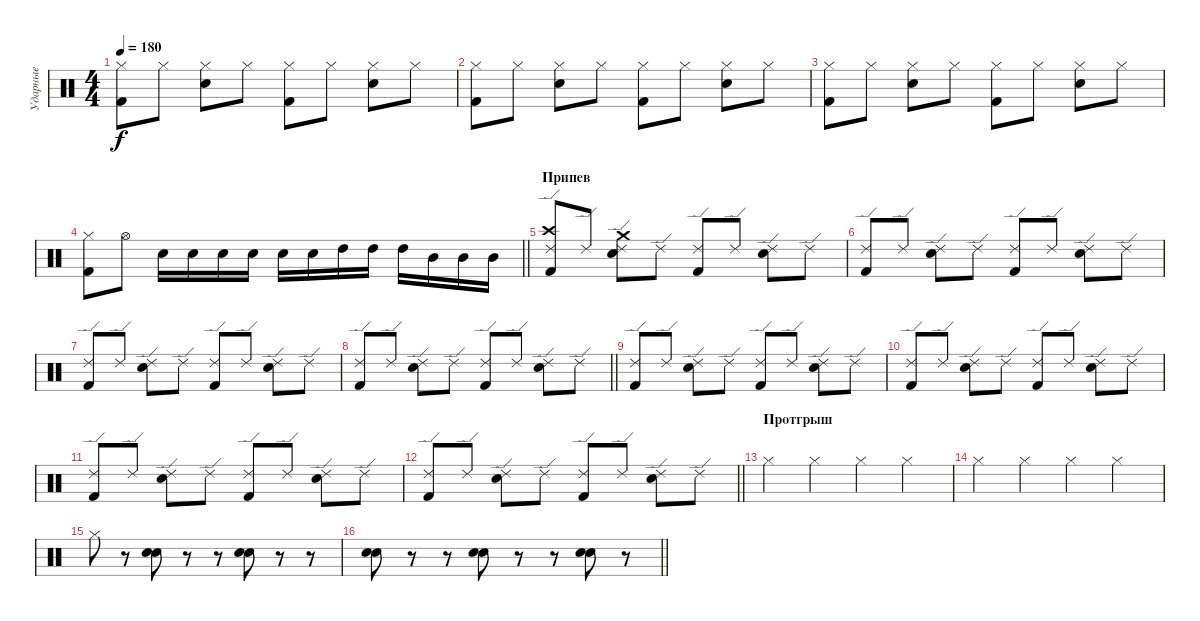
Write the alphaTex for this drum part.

\track ("Ударные" "Ударные") {instrument percussion}
\staff {score}
\articulation defaults
\ts (4 4)
\tempo 180
\clef neutral
\ks c
("Hi-Hat (closed)" "Kick (hit) 2").8{dy f} "Hi-Hat (closed)".8 ("Hi-Hat (closed)" "Electric Snare (hit)").8 "Hi-Hat (closed)".8 ("Hi-Hat (closed)" "Kick (hit) 2").8 "Hi-Hat (closed)".8 ("Hi-Hat (closed)" "Electric Snare (hit)").8 "Hi-Hat (closed)".8 |
("Hi-Hat (closed)" "Kick (hit) 2").8 "Hi-Hat (closed)".8 ("Hi-Hat (closed)" "Electric Snare (hit)").8 "Hi-Hat (closed)".8 ("Hi-Hat (closed)" "Kick (hit) 2").8 "Hi-Hat (closed)".8 ("Hi-Hat (closed)" "Electric Snare (hit)").8 "Hi-Hat (closed)".8 |
("Hi-Hat (closed)" "Kick (hit) 2").8 "Hi-Hat (closed)".8 ("Hi-Hat (closed)" "Electric Snare (hit)").8 "Hi-Hat (closed)".8 ("Hi-Hat (closed)" "Kick (hit) 2").8 "Hi-Hat (closed)".8 ("Hi-Hat (closed)" "Electric Snare (hit)").8 "Hi-Hat (closed)".8 |
\barLineRight lightlight
("Hi-Hat (closed)" "Kick (hit) 2").8 "Hi-Hat (open)".8 "Electric Snare (hit)".16 "Electric Snare (hit)".16 "Electric Snare (hit)".16 "Electric Snare (hit)".16 "Electric Snare (hit)".16 "Electric Snare (hit)".16 "High Tom (hit)".16 "High Tom (hit)".16 "High Tom (hit)".16 "Mid Tom (hit)".16 "Mid Tom (hit)".16 "Mid Tom (hit)".16 |
\section ("" "Припев")
("Crash high (hit)" "Ride (edge) 2" "Kick (hit) 2").8 "Ride (edge) 2".8 ("Crash medium (hit)" "Ride (edge) 2" "Electric Snare (hit)").8 "Ride (edge) 2".8 ("Ride (edge) 2" "Kick (hit) 2").8 "Ride (edge) 2".8 ("Ride (edge) 2" "Electric Snare (hit)").8 "Ride (edge) 2".8 |
("Ride (edge) 2" "Kick (hit) 2").8 "Ride (edge) 2".8 ("Ride (edge) 2" "Electric Snare (hit)").8 "Ride (edge) 2".8 ("Ride (edge) 2" "Kick (hit) 2").8 "Ride (edge) 2".8 ("Ride (edge) 2" "Electric Snare (hit)").8 "Ride (edge) 2".8 |
("Ride (edge) 2" "Kick (hit) 2").8 "Ride (edge) 2".8 ("Ride (edge) 2" "Electric Snare (hit)").8 "Ride (edge) 2".8 ("Ride (edge) 2" "Kick (hit) 2").8 "Ride (edge) 2".8 ("Ride (edge) 2" "Electric Snare (hit)").8 "Ride (edge) 2".8 |
\barLineRight lightlight
("Ride (edge) 2" "Kick (hit) 2").8 "Ride (edge) 2".8 ("Ride (edge) 2" "Electric Snare (hit)").8 "Ride (edge) 2".8 ("Ride (edge) 2" "Kick (hit) 2").8 "Ride (edge) 2".8 ("Ride (edge) 2" "Electric Snare (hit)").8 "Ride (edge) 2".8 |
("Ride (edge) 2" "Kick (hit) 2").8 "Ride (edge) 2".8 ("Ride (edge) 2" "Electric Snare (hit)").8 "Ride (edge) 2".8 ("Ride (edge) 2" "Kick (hit) 2").8 "Ride (edge) 2".8 ("Ride (edge) 2" "Electric Snare (hit)").8 "Ride (edge) 2".8 |
("Ride (edge) 2" "Kick (hit) 2").8 "Ride (edge) 2".8 ("Ride (edge) 2" "Electric Snare (hit)").8 "Ride (edge) 2".8 ("Ride (edge) 2" "Kick (hit) 2").8 "Ride (edge) 2".8 ("Ride (edge) 2" "Electric Snare (hit)").8 "Ride (edge) 2".8 |
("Ride (edge) 2" "Kick (hit) 2").8 "Ride (edge) 2".8 ("Ride (edge) 2" "Electric Snare (hit)").8 "Ride (edge) 2".8 ("Ride (edge) 2" "Kick (hit) 2").8 "Ride (edge) 2".8 ("Ride (edge) 2" "Electric Snare (hit)").8 "Ride (edge) 2".8 |
\barLineRight lightlight
("Ride (edge) 2" "Kick (hit) 2").8 "Ride (edge) 2".8 ("Ride (edge) 2" "Electric Snare (hit)").8 "Ride (edge) 2".8 ("Ride (edge) 2" "Kick (hit) 2").8 "Ride (edge) 2".8 ("Ride (edge) 2" "Electric Snare (hit)").8 "Ride (edge) 2".8 |
\section ("" "Протгрыш")
"Hi-Hat (closed)".4 "Hi-Hat (closed)".4 "Hi-Hat (closed)".4 "Hi-Hat (closed)".4 |
"Hi-Hat (closed)".4 "Hi-Hat (closed)".4 "Hi-Hat (closed)".4 "Hi-Hat (closed)".4 |
"Hi-Hat (closed)".8 r.8 ("Electric Snare (hit)" "Electric Snare (hit)").8 r.8 r.8 ("Electric Snare (hit)" "Electric Snare (hit)").8 r.8 r.8 |
\barLineRight lightlight
("Electric Snare (hit)" "Electric Snare (hit)").8 r.8 r.8 ("Electric Snare (hit)" "Electric Snare (hit)").8 r.8 r.8 ("Electric Snare (hit)" "Electric Snare (hit)").8 r.8
